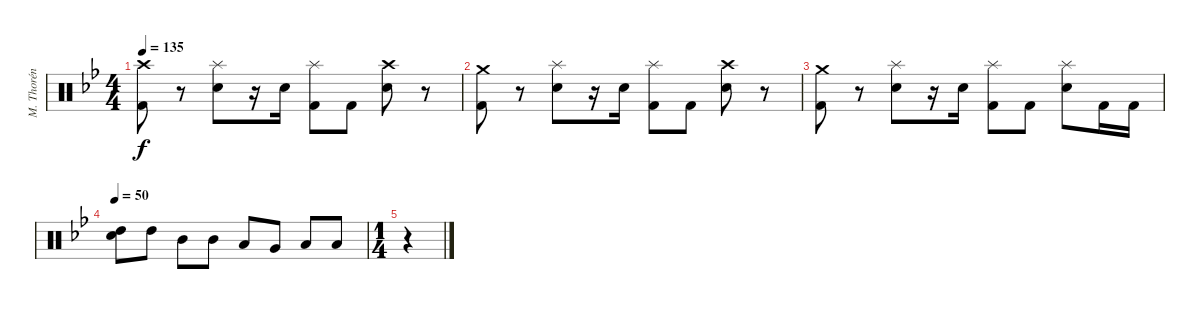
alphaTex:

\track ("M. Thorén (Drums)" "M. Thorén ") {instrument percussion}
\staff {score}
\articulation defaults
\ts (4 4)
\tempo 135
\clef neutral
\ks gminor
("Crash high (hit)" "Kick (hit) 2").8{dy f} r.8 ("Splash (hit)" "Electric Snare (hit)").8 r.16 "Electric Snare (hit)".16 ("Splash (hit)" "Kick (hit) 2").8 "Kick (hit) 2".8 ("Crash high (hit)" "Electric Snare (hit)").8 r.8 |
("Crash medium (hit)" "Kick (hit) 2").8 r.8 ("Splash (hit)" "Electric Snare (hit)").8 r.16 "Electric Snare (hit)".16 ("Splash (hit)" "Kick (hit) 2").8 "Kick (hit) 2".8 ("Crash high (hit)" "Electric Snare (hit)").8 r.8 |
("Crash medium (hit)" "Kick (hit) 2").8 r.8 ("Splash (hit)" "Electric Snare (hit)").8 r.16 "Electric Snare (hit)".16 ("Splash (hit)" "Kick (hit) 2").8 "Kick (hit) 2".8 ("Splash (hit)" "Electric Snare (hit)").8 "Kick (hit) 2".16 "Kick (hit) 2".16 |
\tempo 50
("High Tom (hit)" "Electric Snare (hit)").8 "High Tom (hit)".8 "Mid Tom (hit)".8 "Mid Tom (hit)".8 "Low Tom (hit)".8 "Very Low Tom (hit)".8 "Low Floor Tom (hit)".8 "Low Floor Tom (hit)".8 |
\ts (1 4)
r.4
